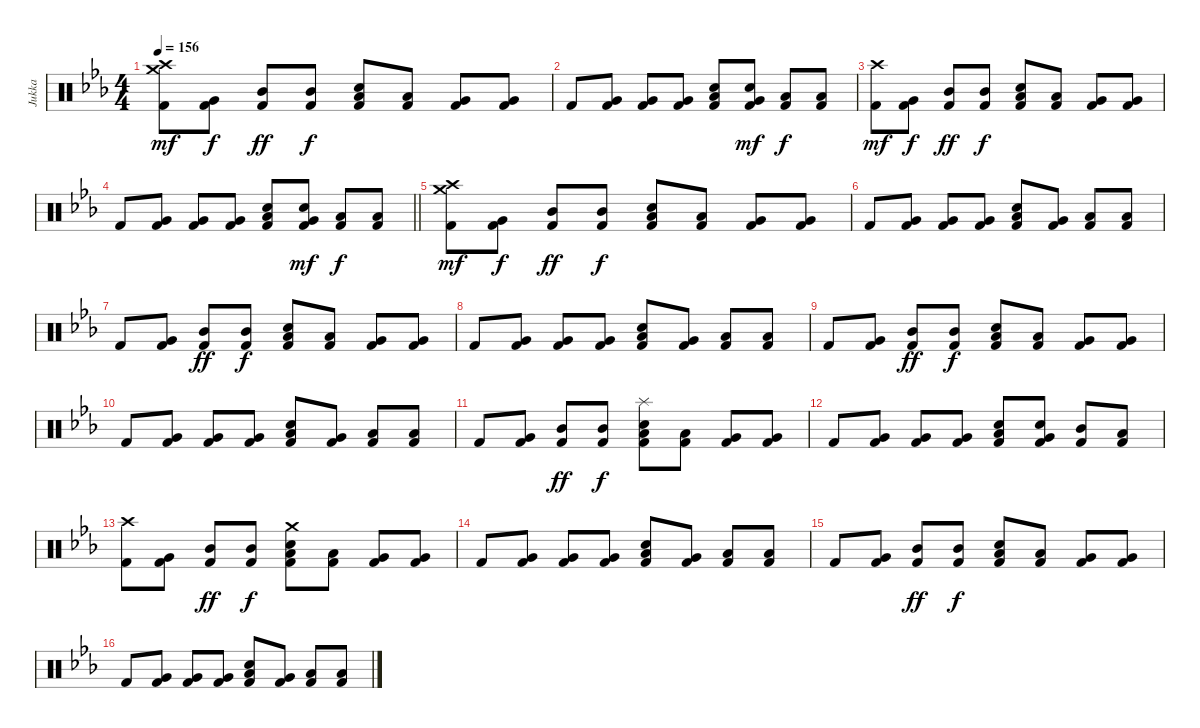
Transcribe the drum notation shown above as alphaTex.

\track ("Jukka" "Jukka") {instrument percussion}
\staff {score}
\articulation defaults
\ts (4 4)
\tempo 156
\clef neutral
\ks cminor
("Crash high (hit)" "Crash medium (hit)" "Kick (hit) 2").8{dy mf} ("Very Low Tom (hit)" "Kick (hit) 2").8{dy f} ("Mid Tom (hit)" "Kick (hit) 2").8{dy ff} ("Mid Tom (hit)" "Kick (hit) 2").8{dy f} ("Electric Snare (hit)" "Low Tom (hit)" "Kick (hit) 2").8 ("Low Tom (hit)" "Kick (hit) 2").8 ("Very Low Tom (hit)" "Kick (hit) 2").8 ("Very Low Tom (hit)" "Kick (hit) 2").8 |
"Kick (hit) 2".8 ("Very Low Tom (hit)" "Kick (hit) 2").8 ("Very Low Tom (hit)" "Kick (hit) 2").8 ("Very Low Tom (hit)" "Kick (hit) 2").8 ("Electric Snare (hit)" "Low Tom (hit)" "Kick (hit) 2").8 ("Electric Snare (hit)" "Very Low Tom (hit)" "Kick (hit) 2").8{dy mf} ("Low Tom (hit)" "Kick (hit) 2").8{dy f} ("Low Tom (hit)" "Kick (hit) 2").8 |
("Crash high (hit)" "Kick (hit) 2").8{dy mf} ("Very Low Tom (hit)" "Kick (hit) 2").8{dy f} ("Mid Tom (hit)" "Kick (hit) 2").8{dy ff} ("Mid Tom (hit)" "Kick (hit) 2").8{dy f} ("Electric Snare (hit)" "Low Tom (hit)" "Kick (hit) 2").8 ("Low Tom (hit)" "Kick (hit) 2").8 ("Very Low Tom (hit)" "Kick (hit) 2").8 ("Very Low Tom (hit)" "Kick (hit) 2").8 |
\barLineRight lightlight "Kick (hit) 2".8
("Very Low Tom (hit)" "Kick (hit) 2").8 ("Very Low Tom (hit)" "Kick (hit) 2").8 ("Very Low Tom (hit)" "Kick (hit) 2").8 ("Electric Snare (hit)" "Low Tom (hit)" "Kick (hit) 2").8 ("Electric Snare (hit)" "Very Low Tom (hit)" "Kick (hit) 2").8{dy mf} ("Low Tom (hit)" "Kick (hit) 2").8{dy f} ("Low Tom (hit)" "Kick (hit) 2").8 |
("Crash high (hit)" "Crash medium (hit)" "Kick (hit) 2").8{dy mf} ("Very Low Tom (hit)" "Kick (hit) 2").8{dy f} ("Mid Tom (hit)" "Kick (hit) 2").8{dy ff} ("Mid Tom (hit)" "Kick (hit) 2").8{dy f} ("Electric Snare (hit)" "Low Tom (hit)" "Kick (hit) 2").8 ("Low Tom (hit)" "Kick (hit) 2").8 ("Very Low Tom (hit)" "Kick (hit) 2").8 ("Very Low Tom (hit)" "Kick (hit) 2").8 |
"Kick (hit) 2".8 ("Very Low Tom (hit)" "Kick (hit) 2").8 ("Very Low Tom (hit)" "Kick (hit) 2").8 ("Very Low Tom (hit)" "Kick (hit) 2").8 ("Electric Snare (hit)" "Low Tom (hit)" "Kick (hit) 2").8 ("Very Low Tom (hit)" "Kick (hit) 2").8 ("Low Tom (hit)" "Kick (hit) 2").8 ("Low Tom (hit)" "Kick (hit) 2").8 |
"Kick (hit) 2".8 ("Very Low Tom (hit)" "Kick (hit) 2").8 ("Mid Tom (hit)" "Kick (hit) 2").8{dy ff} ("Mid Tom (hit)" "Kick (hit) 2").8{dy f} ("Electric Snare (hit)" "Low Tom (hit)" "Kick (hit) 2").8 ("Low Tom (hit)" "Kick (hit) 2").8 ("Very Low Tom (hit)" "Kick (hit) 2").8 ("Very Low Tom (hit)" "Kick (hit) 2").8 |
"Kick (hit) 2".8 ("Very Low Tom (hit)" "Kick (hit) 2").8 ("Very Low Tom (hit)" "Kick (hit) 2").8 ("Very Low Tom (hit)" "Kick (hit) 2").8 ("Electric Snare (hit)" "Low Tom (hit)" "Kick (hit) 2").8 ("Very Low Tom (hit)" "Kick (hit) 2").8 ("Low Tom (hit)" "Kick (hit) 2").8 ("Low Tom (hit)" "Kick (hit) 2").8 |
"Kick (hit) 2".8 ("Very Low Tom (hit)" "Kick (hit) 2").8 ("Mid Tom (hit)" "Kick (hit) 2").8{dy ff} ("Mid Tom (hit)" "Kick (hit) 2").8{dy f} ("Electric Snare (hit)" "Low Tom (hit)" "Kick (hit) 2").8 ("Low Tom (hit)" "Kick (hit) 2").8 ("Very Low Tom (hit)" "Kick (hit) 2").8 ("Very Low Tom (hit)" "Kick (hit) 2").8 |
"Kick (hit) 2".8 ("Very Low Tom (hit)" "Kick (hit) 2").8 ("Very Low Tom (hit)" "Kick (hit) 2").8 ("Very Low Tom (hit)" "Kick (hit) 2").8 ("Electric Snare (hit)" "Low Tom (hit)" "Kick (hit) 2").8 ("Very Low Tom (hit)" "Kick (hit) 2").8 ("Low Tom (hit)" "Kick (hit) 2").8 ("Low Tom (hit)" "Kick (hit) 2").8 |
"Kick (hit) 2".8 ("Very Low Tom (hit)" "Kick (hit) 2").8 ("Mid Tom (hit)" "Kick (hit) 2").8{dy ff} ("Mid Tom (hit)" "Kick (hit) 2").8{dy f} ("Splash (hit)" "Electric Snare (hit)" "Low Tom (hit)" "Kick (hit) 2").8 ("Low Tom (hit)" "Kick (hit) 2").8 ("Very Low Tom (hit)" "Kick (hit) 2").8 ("Very Low Tom (hit)" "Kick (hit) 2").8 |
"Kick (hit) 2".8 ("Very Low Tom (hit)" "Kick (hit) 2").8 ("Very Low Tom (hit)" "Kick (hit) 2").8 ("Very Low Tom (hit)" "Kick (hit) 2").8 ("Electric Snare (hit)" "Low Tom (hit)" "Kick (hit) 2").8 ("Electric Snare (hit)" "Very Low Tom (hit)" "Kick (hit) 2").8 ("Mid Tom (hit)" "Kick (hit) 2").8 ("Low Tom (hit)" "Kick (hit) 2").8 |
("Crash high (hit)" "Kick (hit) 2").8 ("Very Low Tom (hit)" "Kick (hit) 2").8 ("Mid Tom (hit)" "Kick (hit) 2").8{dy ff} ("Mid Tom (hit)" "Kick (hit) 2").8{dy f} ("Crash medium (hit)" "Electric Snare (hit)" "Low Tom (hit)" "Kick (hit) 2").8 ("Low Tom (hit)" "Kick (hit) 2").8 ("Very Low Tom (hit)" "Kick (hit) 2").8 ("Very Low Tom (hit)" "Kick (hit) 2").8 |
"Kick (hit) 2".8 ("Very Low Tom (hit)" "Kick (hit) 2").8 ("Very Low Tom (hit)" "Kick (hit) 2").8 ("Very Low Tom (hit)" "Kick (hit) 2").8 ("Electric Snare (hit)" "Low Tom (hit)" "Kick (hit) 2").8 ("Very Low Tom (hit)" "Kick (hit) 2").8 ("Low Tom (hit)" "Kick (hit) 2").8 ("Low Tom (hit)" "Kick (hit) 2").8 |
"Kick (hit) 2".8 ("Very Low Tom (hit)" "Kick (hit) 2").8 ("Mid Tom (hit)" "Kick (hit) 2").8{dy ff} ("Mid Tom (hit)" "Kick (hit) 2").8{dy f} ("Electric Snare (hit)" "Low Tom (hit)" "Kick (hit) 2").8 ("Low Tom (hit)" "Kick (hit) 2").8 ("Very Low Tom (hit)" "Kick (hit) 2").8 ("Very Low Tom (hit)" "Kick (hit) 2").8 |
"Kick (hit) 2".8 ("Very Low Tom (hit)" "Kick (hit) 2").8 ("Very Low Tom (hit)" "Kick (hit) 2").8 ("Very Low Tom (hit)" "Kick (hit) 2").8 ("Electric Snare (hit)" "Low Tom (hit)" "Kick (hit) 2").8 ("Very Low Tom (hit)" "Kick (hit) 2").8 ("Low Tom (hit)" "Kick (hit) 2").8 ("Low Tom (hit)" "Kick (hit) 2").8
